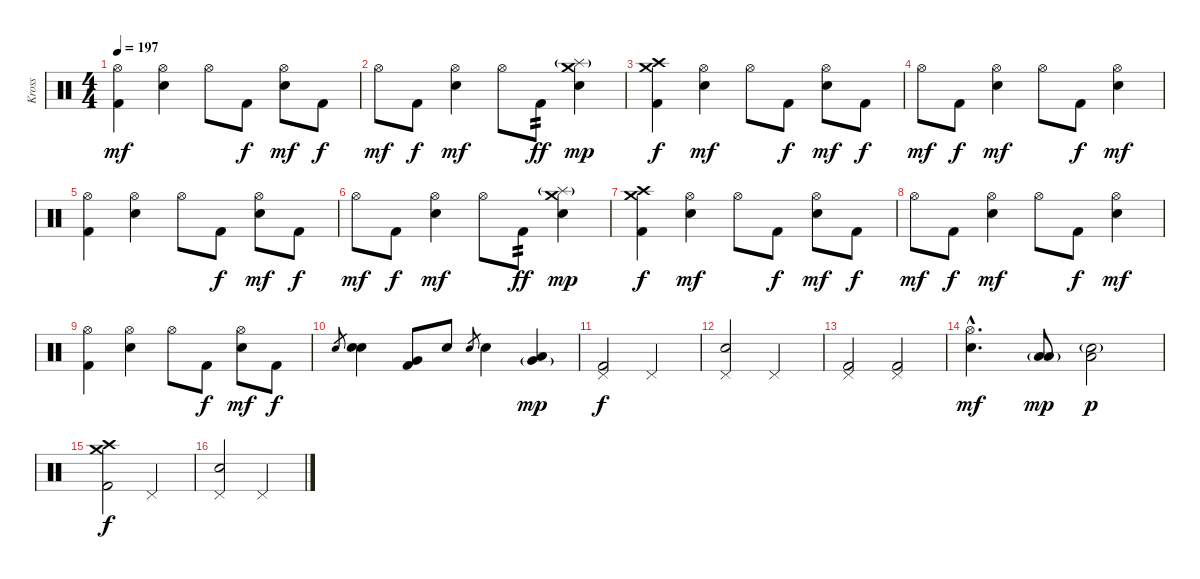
\track ("Kross" "Kross") {instrument percussion}
\staff {score}
\articulation defaults
\ts (4 4)
\tempo 197
\clef neutral
\ks c
("Hi-Hat (open)" "Kick (hit) 2").4{dy mf} ("Hi-Hat (open)" "Electric Snare (hit)").4 "Hi-Hat (open)".8 "Kick (hit) 2".8{dy f} ("Hi-Hat (open)" "Electric Snare (hit)").8{dy mf} "Kick (hit) 2".8{dy f} |
"Hi-Hat (open)".8{dy mf} "Kick (hit) 2".8{dy f} ("Hi-Hat (open)" "Electric Snare (hit)").4{dy mf} "Hi-Hat (open)".8 "Kick (hit) 2".8{tp 2 dy ff} ("Crash medium (hit)" "Splash (hit)"{g} "Electric Snare (hit)").4{dy mp} |
("Crash medium (hit)" "Crash high (hit)" "Kick (hit) 2").4{dy f} ("Hi-Hat (open)" "Electric Snare (hit)").4{dy mf} "Hi-Hat (open)".8 "Kick (hit) 2".8{dy f} ("Hi-Hat (open)" "Electric Snare (hit)").8{dy mf} "Kick (hit) 2".8{dy f} |
"Hi-Hat (open)".8{dy mf} "Kick (hit) 2".8{dy f} ("Hi-Hat (open)" "Electric Snare (hit)").4{dy mf} "Hi-Hat (open)".8 "Kick (hit) 2".8{dy f} ("Hi-Hat (open)" "Electric Snare (hit)").4{dy mf} |
("Hi-Hat (open)" "Kick (hit) 2").4 ("Hi-Hat (open)" "Electric Snare (hit)").4 "Hi-Hat (open)".8 "Kick (hit) 2".8{dy f} ("Hi-Hat (open)" "Electric Snare (hit)").8{dy mf} "Kick (hit) 2".8{dy f} |
"Hi-Hat (open)".8{dy mf} "Kick (hit) 2".8{dy f} ("Hi-Hat (open)" "Electric Snare (hit)").4{dy mf} "Hi-Hat (open)".8 "Kick (hit) 2".8{tp 2 dy ff} ("Crash medium (hit)" "Splash (hit)"{g} "Electric Snare (hit)").4{dy mp} |
("Crash medium (hit)" "Crash high (hit)" "Kick (hit) 2").4{dy f} ("Hi-Hat (open)" "Electric Snare (hit)").4{dy mf} "Hi-Hat (open)".8 "Kick (hit) 2".8{dy f} ("Hi-Hat (open)" "Electric Snare (hit)").8{dy mf} "Kick (hit) 2".8{dy f} |
"Hi-Hat (open)".8{dy mf} "Kick (hit) 2".8{dy f} ("Hi-Hat (open)" "Electric Snare (hit)").4{dy mf} "Hi-Hat (open)".8 "Kick (hit) 2".8{dy f} ("Hi-Hat (open)" "Electric Snare (hit)").4{dy mf} |
("Hi-Hat (open)" "Kick (hit) 2").4 ("Hi-Hat (open)" "Electric Snare (hit)").4 "Hi-Hat (open)".8 "Kick (hit) 2".8{dy f} ("Hi-Hat (open)" "Electric Snare (hit)").8{dy mf} "Kick (hit) 2".8{dy f} |
"Electric Snare (hit)".8{gr} ("Electric Snare (hit)" "Electric Snare (hit)").4 ("Very Low Tom (hit)" "Kick (hit) 2").8 "Electric Snare (hit)".8 "Electric Snare (hit)".8{gr} "Electric Snare (hit)".4 ("Low Floor Tom (hit)" "Very Low Tom (hit)"{g}).4{dy mp} |
("Pedal Hi-Hat (hit)" "Kick (hit) 2").2{dy f} "Pedal Hi-Hat (hit)".2 |
("Pedal Hi-Hat (hit)" "Electric Snare (hit)").2 "Pedal Hi-Hat (hit)".2 |
("Pedal Hi-Hat (hit)" "Kick (hit) 2").2 ("Pedal Hi-Hat (hit)" "Kick (hit) 2").2 |
("Hi-Hat (open)"{hac} "Electric Snare (hit)"{hac}).4{d dy mf} ("Low Tom (hit)" "Low Floor Tom (hit)"{g}).8{dy mp} ("Low Tom (hit)" "Electric Snare (hit)"{g}).2{dy p} |
("Crash medium (hit)" "Crash high (hit)" "Kick (hit) 2").2{dy f} "Pedal Hi-Hat (hit)".2 |
("Pedal Hi-Hat (hit)" "Electric Snare (hit)").2 "Pedal Hi-Hat (hit)".2
